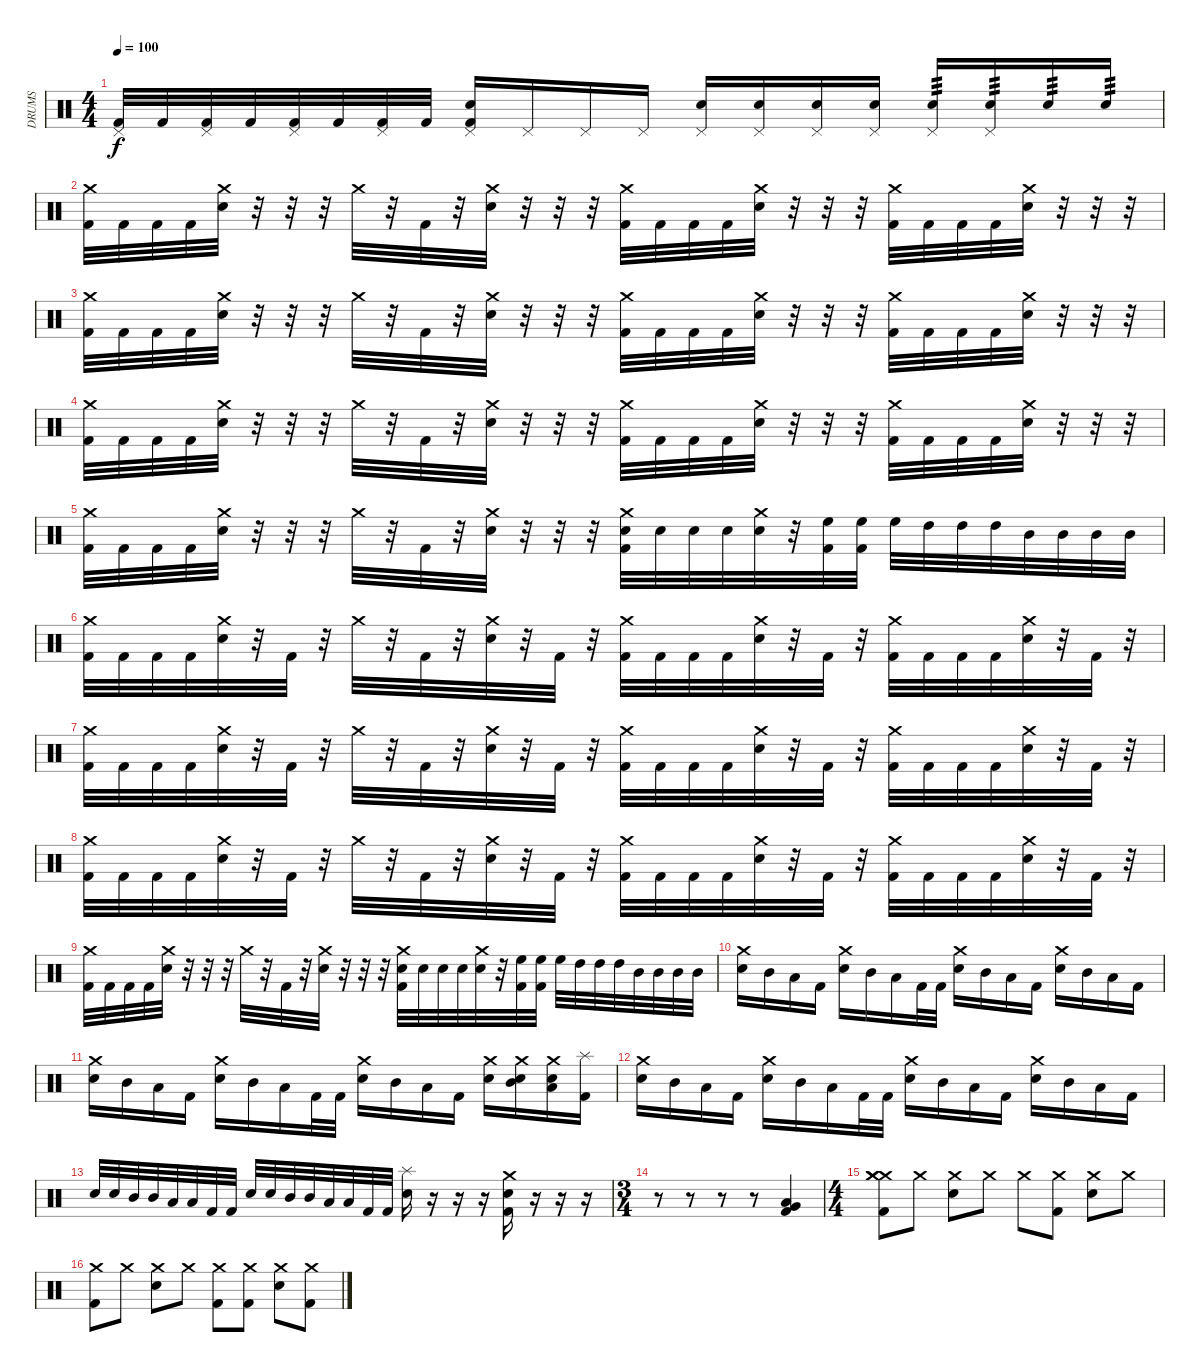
\track ("DRUMS" "DRUMS") {instrument percussion}
\staff {score}
\articulation defaults
\ts (4 4)
\tempo 100
\clef neutral
\ks c
("Pedal Hi-Hat (hit)" "Kick (hit) 2").32{dy f} "Kick (hit) 2".32 ("Pedal Hi-Hat (hit)" "Kick (hit) 2").32 "Kick (hit) 2".32 ("Pedal Hi-Hat (hit)" "Kick (hit) 2").32 "Kick (hit) 2".32 ("Pedal Hi-Hat (hit)" "Kick (hit) 2").32 "Kick (hit) 2".32 ("Pedal Hi-Hat (hit)" "Electric Snare (hit)" "Kick (hit) 2").16 "Pedal Hi-Hat (hit)".16 "Pedal Hi-Hat (hit)".16 "Pedal Hi-Hat (hit)".16 ("Pedal Hi-Hat (hit)" "Electric Snare (hit)").16 ("Pedal Hi-Hat (hit)" "Electric Snare (hit)").16 ("Pedal Hi-Hat (hit)" "Electric Snare (hit)").16 ("Pedal Hi-Hat (hit)" "Electric Snare (hit)").16 ("Pedal Hi-Hat (hit)" "Electric Snare (hit)").16{tp 3} ("Pedal Hi-Hat (hit)" "Electric Snare (hit)").16{tp 3} "Electric Snare (hit)".16{tp 3} "Electric Snare (hit)".16{tp 3} |
("Crash medium (hit)" "Kick (hit) 2").32 "Kick (hit) 2".32 "Kick (hit) 2".32 "Kick (hit) 2".32 ("Crash medium (hit)" "Electric Snare (hit)").32 r.32 r.32 r.32 "Crash medium (hit)".32 r.32 "Kick (hit) 2".32 r.32 ("Crash medium (hit)" "Electric Snare (hit)").32 r.32 r.32 r.32 ("Crash medium (hit)" "Kick (hit) 2").32 "Kick (hit) 2".32 "Kick (hit) 2".32 "Kick (hit) 2".32 ("Crash medium (hit)" "Electric Snare (hit)").32 r.32 r.32 r.32 ("Crash medium (hit)" "Kick (hit) 2").32 "Kick (hit) 2".32 "Kick (hit) 2".32 "Kick (hit) 2".32 ("Crash medium (hit)" "Electric Snare (hit)").32 r.32 r.32 r.32 |
("Crash medium (hit)" "Kick (hit) 2").32 "Kick (hit) 2".32 "Kick (hit) 2".32 "Kick (hit) 2".32 ("Crash medium (hit)" "Electric Snare (hit)").32 r.32 r.32 r.32 "Crash medium (hit)".32 r.32 "Kick (hit) 2".32 r.32 ("Crash medium (hit)" "Electric Snare (hit)").32 r.32 r.32 r.32 ("Crash medium (hit)" "Kick (hit) 2").32 "Kick (hit) 2".32 "Kick (hit) 2".32 "Kick (hit) 2".32 ("Crash medium (hit)" "Electric Snare (hit)").32 r.32 r.32 r.32 ("Crash medium (hit)" "Kick (hit) 2").32 "Kick (hit) 2".32 "Kick (hit) 2".32 "Kick (hit) 2".32 ("Crash medium (hit)" "Electric Snare (hit)").32 r.32 r.32 r.32 |
("Crash medium (hit)" "Kick (hit) 2").32 "Kick (hit) 2".32 "Kick (hit) 2".32 "Kick (hit) 2".32 ("Crash medium (hit)" "Electric Snare (hit)").32 r.32 r.32 r.32 "Crash medium (hit)".32 r.32 "Kick (hit) 2".32 r.32 ("Crash medium (hit)" "Electric Snare (hit)").32 r.32 r.32 r.32 ("Crash medium (hit)" "Kick (hit) 2").32 "Kick (hit) 2".32 "Kick (hit) 2".32 "Kick (hit) 2".32 ("Crash medium (hit)" "Electric Snare (hit)").32 r.32 r.32 r.32 ("Crash medium (hit)" "Kick (hit) 2").32 "Kick (hit) 2".32 "Kick (hit) 2".32 "Kick (hit) 2".32 ("Crash medium (hit)" "Electric Snare (hit)").32 r.32 r.32 r.32 |
("Crash medium (hit)" "Kick (hit) 2").32 "Kick (hit) 2".32 "Kick (hit) 2".32 "Kick (hit) 2".32 ("Crash medium (hit)" "Electric Snare (hit)").32 r.32 r.32 r.32 "Crash medium (hit)".32 r.32 "Kick (hit) 2".32 r.32 ("Crash medium (hit)" "Electric Snare (hit)").32 r.32 r.32 r.32 ("Crash medium (hit)" "Electric Snare (hit)" "Kick (hit) 2").32 "Electric Snare (hit)".32 "Electric Snare (hit)".32 "Electric Snare (hit)".32 ("Crash medium (hit)" "Electric Snare (hit)").32 r.32 ("High Floor Tom (hit)" "Kick (hit) 2").32 ("High Floor Tom (hit)" "Kick (hit) 2").32 "High Floor Tom (hit)".32 "High Tom (hit)".32 "High Tom (hit)".32 "High Tom (hit)".32 "Mid Tom (hit)".32 "Mid Tom (hit)".32 "Mid Tom (hit)".32 "Mid Tom (hit)".32 |
("Crash medium (hit)" "Kick (hit) 2").32 "Kick (hit) 2".32 "Kick (hit) 2".32 "Kick (hit) 2".32 ("Crash medium (hit)" "Electric Snare (hit)").32 r.32 "Kick (hit) 2".32 r.32 "Crash medium (hit)".32 r.32 "Kick (hit) 2".32 r.32 ("Crash medium (hit)" "Electric Snare (hit)").32 r.32 "Kick (hit) 2".32 r.32 ("Crash medium (hit)" "Kick (hit) 2").32 "Kick (hit) 2".32 "Kick (hit) 2".32 "Kick (hit) 2".32 ("Crash medium (hit)" "Electric Snare (hit)").32 r.32 "Kick (hit) 2".32 r.32 ("Crash medium (hit)" "Kick (hit) 2").32 "Kick (hit) 2".32 "Kick (hit) 2".32 "Kick (hit) 2".32 ("Crash medium (hit)" "Electric Snare (hit)").32 r.32 "Kick (hit) 2".32 r.32 |
("Crash medium (hit)" "Kick (hit) 2").32 "Kick (hit) 2".32 "Kick (hit) 2".32 "Kick (hit) 2".32 ("Crash medium (hit)" "Electric Snare (hit)").32 r.32 "Kick (hit) 2".32 r.32 "Crash medium (hit)".32 r.32 "Kick (hit) 2".32 r.32 ("Crash medium (hit)" "Electric Snare (hit)").32 r.32 "Kick (hit) 2".32 r.32 ("Crash medium (hit)" "Kick (hit) 2").32 "Kick (hit) 2".32 "Kick (hit) 2".32 "Kick (hit) 2".32 ("Crash medium (hit)" "Electric Snare (hit)").32 r.32 "Kick (hit) 2".32 r.32 ("Crash medium (hit)" "Kick (hit) 2").32 "Kick (hit) 2".32 "Kick (hit) 2".32 "Kick (hit) 2".32 ("Crash medium (hit)" "Electric Snare (hit)").32 r.32 "Kick (hit) 2".32 r.32 |
("Crash medium (hit)" "Kick (hit) 2").32 "Kick (hit) 2".32 "Kick (hit) 2".32 "Kick (hit) 2".32 ("Crash medium (hit)" "Electric Snare (hit)").32 r.32 "Kick (hit) 2".32 r.32 "Crash medium (hit)".32 r.32 "Kick (hit) 2".32 r.32 ("Crash medium (hit)" "Electric Snare (hit)").32 r.32 "Kick (hit) 2".32 r.32 ("Crash medium (hit)" "Kick (hit) 2").32 "Kick (hit) 2".32 "Kick (hit) 2".32 "Kick (hit) 2".32 ("Crash medium (hit)" "Electric Snare (hit)").32 r.32 "Kick (hit) 2".32 r.32 ("Crash medium (hit)" "Kick (hit) 2").32 "Kick (hit) 2".32 "Kick (hit) 2".32 "Kick (hit) 2".32 ("Crash medium (hit)" "Electric Snare (hit)").32 r.32 "Kick (hit) 2".32 r.32 |
("Crash medium (hit)" "Kick (hit) 2").32 "Kick (hit) 2".32 "Kick (hit) 2".32 "Kick (hit) 2".32 ("Crash medium (hit)" "Electric Snare (hit)").32 r.32 r.32 r.32 "Crash medium (hit)".32 r.32 "Kick (hit) 2".32 r.32 ("Crash medium (hit)" "Electric Snare (hit)").32 r.32 r.32 r.32 ("Crash medium (hit)" "Electric Snare (hit)" "Kick (hit) 2").32 "Electric Snare (hit)".32 "Electric Snare (hit)".32 "Electric Snare (hit)".32 ("Crash medium (hit)" "Electric Snare (hit)").32 r.32 ("High Floor Tom (hit)" "Kick (hit) 2").32 ("High Floor Tom (hit)" "Kick (hit) 2").32 "High Floor Tom (hit)".32 "High Tom (hit)".32 "High Tom (hit)".32 "High Tom (hit)".32 "Mid Tom (hit)".32 "Mid Tom (hit)".32 "Mid Tom (hit)".32 "Mid Tom (hit)".32 |
("Crash medium (hit)" "Electric Snare (hit)").16 "Mid Tom (hit)".16 "Low Tom (hit)".16 "Kick (hit) 2".16 ("Crash medium (hit)" "Electric Snare (hit)").16 "Mid Tom (hit)".16 "Low Tom (hit)".16 "Kick (hit) 2".32 "Kick (hit) 2".32 ("Crash medium (hit)" "Electric Snare (hit)").16 "Mid Tom (hit)".16 "Low Tom (hit)".16 "Kick (hit) 2".16 ("Crash medium (hit)" "Electric Snare (hit)").16 "Mid Tom (hit)".16 "Low Tom (hit)".16 "Kick (hit) 2".16 |
("Crash medium (hit)" "Electric Snare (hit)").16 "Mid Tom (hit)".16 "Low Tom (hit)".16 "Kick (hit) 2".16 ("Crash medium (hit)" "Electric Snare (hit)").16 "Mid Tom (hit)".16 "Low Tom (hit)".16 "Kick (hit) 2".32 "Kick (hit) 2".32 ("Crash medium (hit)" "Electric Snare (hit)").16 "Mid Tom (hit)".16 "Low Tom (hit)".16 "Kick (hit) 2".16 ("Crash medium (hit)" "Electric Snare (hit)").16 ("Crash medium (hit)" "Electric Snare (hit)" "Mid Tom (hit)").16 ("Crash medium (hit)" "Electric Snare (hit)" "Low Tom (hit)").16 ("Splash (hit)" "Kick (hit) 2").16 |
("Crash medium (hit)" "Electric Snare (hit)").16 "Mid Tom (hit)".16 "Low Tom (hit)".16 "Kick (hit) 2".16 ("Crash medium (hit)" "Electric Snare (hit)").16 "Mid Tom (hit)".16 "Low Tom (hit)".16 "Kick (hit) 2".32 "Kick (hit) 2".32 ("Crash medium (hit)" "Electric Snare (hit)").16 "Mid Tom (hit)".16 "Low Tom (hit)".16 "Kick (hit) 2".16 ("Crash medium (hit)" "Electric Snare (hit)").16 "Mid Tom (hit)".16 "Low Tom (hit)".16 "Kick (hit) 2".16 |
"Electric Snare (hit)".32 "Electric Snare (hit)".32 "Mid Tom (hit)".32 "Mid Tom (hit)".32 "Low Tom (hit)".32 "Low Tom (hit)".32 "Kick (hit) 2".32 "Kick (hit) 2".32 "Electric Snare (hit)".32 "Electric Snare (hit)".32 "Mid Tom (hit)".32 "Mid Tom (hit)".32 "Low Tom (hit)".32 "Low Tom (hit)".32 "Kick (hit) 2".32 "Kick (hit) 2".32 ("Splash (hit)" "Electric Snare (hit)").16 r.16 r.16 r.16 ("Crash medium (hit)" "Electric Snare (hit)" "Kick (hit) 2").16 r.16 r.16 r.16 |
\ts (3 4)
r.8 r.8 r.8 r.8 ("Very Low Tom (hit)" "Low Floor Tom (hit)" "Kick (hit) 2").4 |
\ts (4 4)
("Crash medium (hit)" "Crash medium (hit)" "Crash medium (hit)" "Kick (hit) 2").8 "Crash medium (hit)".8 ("Crash medium (hit)" "Electric Snare (hit)").8 "Crash medium (hit)".8 "Crash medium (hit)".8 ("Crash medium (hit)" "Kick (hit) 2").8 ("Crash medium (hit)" "Electric Snare (hit)").8 "Crash medium (hit)".8 |
("Crash medium (hit)" "Kick (hit) 2").8 "Crash medium (hit)".8 ("Crash medium (hit)" "Electric Snare (hit)").8 "Crash medium (hit)".8 ("Crash medium (hit)" "Kick (hit) 2").8 ("Crash medium (hit)" "Kick (hit) 2").8 ("Crash medium (hit)" "Electric Snare (hit)").8 ("Crash medium (hit)" "Kick (hit) 2").8
